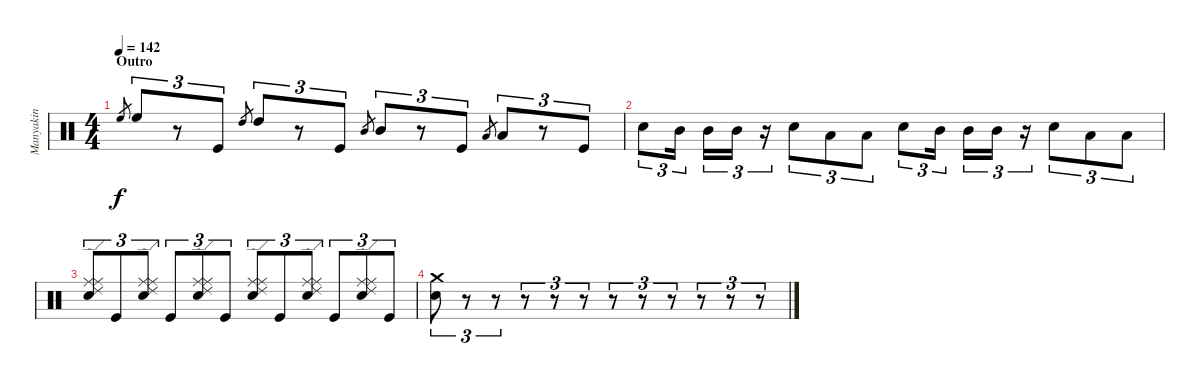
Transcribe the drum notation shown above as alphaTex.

\track ("Manyakin" "Manyakin") {instrument percussion}
\staff {score}
\articulation defaults
\ts (4 4)
\section ("" "Outro")
\tempo 142
\clef neutral
\ks c "High Floor Tom (hit)".8{gr dy f} "High Floor Tom (hit)".8{tu (3 2)}
r.8{tu (3 2)} "Kick (hit)".8{tu (3 2)} "High Tom (hit)".8{gr} "High Tom (hit)".8{tu (3 2)} r.8{tu (3 2)} "Kick (hit)".8{tu (3 2)} "Mid Tom (hit)".8{gr} "Mid Tom (hit)".8{tu (3 2)} r.8{tu (3 2)} "Kick (hit)".8{tu (3 2)} "Low Tom (hit)".8{gr} "Low Tom (hit)".8{tu (3 2)} r.8{tu (3 2)} "Kick (hit)".8{tu (3 2)} |
"Electric Snare (hit)".8{tu (3 2)} "Mid Tom (hit)".16{tu (3 2)} "Mid Tom (hit)".16{tu (3 2)} "Mid Tom (hit)".16{tu (3 2)} r.16{tu (3 2)} "Electric Snare (hit)".8{tu (3 2)} "Low Tom (hit)".8{tu (3 2)} "Low Tom (hit)".8{tu (3 2)} "Electric Snare (hit)".8{tu (3 2)} "Mid Tom (hit)".16{tu (3 2)} "Mid Tom (hit)".16{tu (3 2)} "Mid Tom (hit)".16{tu (3 2)} r.16{tu (3 2)} "Electric Snare (hit)".8{tu (3 2)} "Low Tom (hit)".8{tu (3 2)} "Low Tom (hit)".8{tu (3 2)} |
("Electric Snare (hit)" "Ride (middle)" "Ride (middle)" "Ride (edge) 2").8{tu (3 2)} "Kick (hit)".8{tu (3 2)} ("Electric Snare (hit)" "Ride (middle)" "Ride (middle)" "Ride (edge) 2").8{tu (3 2)} "Kick (hit)".8{tu (3 2)} ("Electric Snare (hit)" "Ride (middle)" "Ride (middle)" "Ride (edge) 2").8{tu (3 2)} "Kick (hit)".8{tu (3 2)} ("Electric Snare (hit)" "Ride (middle)" "Ride (middle)" "Ride (edge) 2").8{tu (3 2)} "Kick (hit)".8{tu (3 2)} ("Electric Snare (hit)" "Ride (middle)" "Ride (middle)" "Ride (edge) 2").8{tu (3 2)} "Kick (hit)".8{tu (3 2)} ("Electric Snare (hit)" "Ride (middle)" "Ride (middle)" "Ride (edge) 2").8{tu (3 2)} "Kick (hit)".8{tu (3 2)} |
("Electric Snare (hit)" "Crash medium (hit)").8{tu (3 2)} r.8{tu (3 2)} r.8{tu (3 2)} r.8{tu (3 2)} r.8{tu (3 2)} r.8{tu (3 2)} r.8{tu (3 2)} r.8{tu (3 2)} r.8{tu (3 2)} r.8{tu (3 2)} r.8{tu (3 2)} r.8{tu (3 2)}
